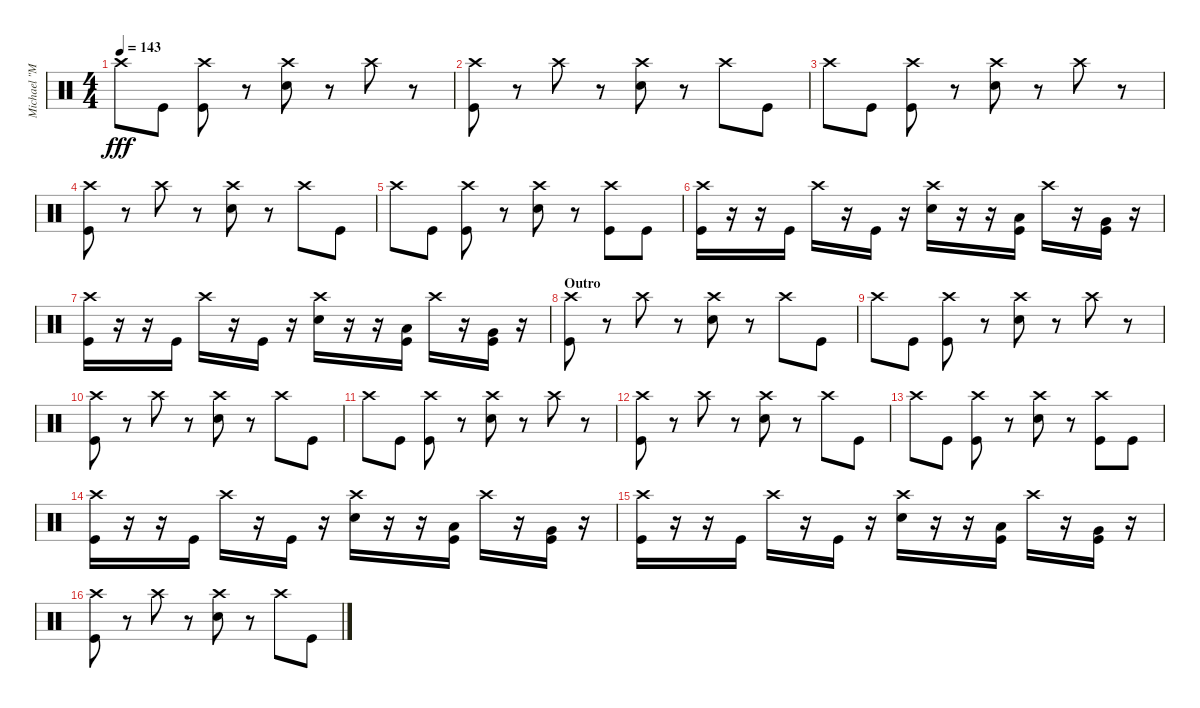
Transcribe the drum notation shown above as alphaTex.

\track ("Michael \"Moose\" Thomas" "Michael \"M") {instrument percussion}
\staff {score}
\articulation defaults
\ts (4 4)
\tempo 143
\clef neutral
\ks c "Crash high (hit)".8{dy fff} "Kick (hit)".8
("Kick (hit)" "Crash high (hit)").8 r.8 ("Snare (hit) 2" "Crash high (hit)").8 r.8 "Crash high (hit)".8 r.8 |
("Kick (hit)" "Crash high (hit)").8 r.8 "Crash high (hit)".8 r.8 ("Snare (hit) 2" "Crash high (hit)").8 r.8 "Crash high (hit)".8 "Kick (hit)".8 |
"Crash high (hit)".8 "Kick (hit)".8 ("Kick (hit)" "Crash high (hit)").8 r.8 ("Snare (hit) 2" "Crash high (hit)").8 r.8 "Crash high (hit)".8 r.8 |
("Kick (hit)" "Crash high (hit)").8 r.8 "Crash high (hit)".8 r.8 ("Snare (hit) 2" "Crash high (hit)").8 r.8 "Crash high (hit)".8 "Kick (hit)".8 |
"Crash high (hit)".8 "Kick (hit)".8 ("Kick (hit)" "Crash high (hit)").8 r.8 ("Snare (hit) 2" "Crash high (hit)").8 r.8 ("Crash high (hit)" "Kick (hit)").8 "Kick (hit)".8 |
("Kick (hit)" "Crash high (hit)").16 r.16 r.16 "Kick (hit)".16 "Crash high (hit)".16 r.16 "Kick (hit)".16 r.16 ("Snare (hit) 2" "Crash high (hit)").16 r.16 r.16 ("Kick (hit)" "Low Tom (hit)").16 "Crash high (hit)".16 r.16 ("Kick (hit)" "Very Low Tom (hit)").16 r.16 |
("Kick (hit)" "Crash high (hit)").16 r.16 r.16 "Kick (hit)".16 "Crash high (hit)".16 r.16 "Kick (hit)".16 r.16 ("Snare (hit) 2" "Crash high (hit)").16 r.16 r.16 ("Kick (hit)" "Low Tom (hit)").16 "Crash high (hit)".16 r.16 ("Kick (hit)" "Very Low Tom (hit)").16 r.16 |
\section ("" "Outro")
("Kick (hit)" "Crash high (hit)").8 r.8 "Crash high (hit)".8 r.8 ("Snare (hit) 2" "Crash high (hit)").8 r.8 "Crash high (hit)".8 "Kick (hit)".8 |
"Crash high (hit)".8 "Kick (hit)".8 ("Kick (hit)" "Crash high (hit)").8 r.8 ("Snare (hit) 2" "Crash high (hit)").8 r.8 "Crash high (hit)".8 r.8 |
("Kick (hit)" "Crash high (hit)").8 r.8 "Crash high (hit)".8 r.8 ("Snare (hit) 2" "Crash high (hit)").8 r.8 "Crash high (hit)".8 "Kick (hit)".8 |
"Crash high (hit)".8 "Kick (hit)".8 ("Kick (hit)" "Crash high (hit)").8 r.8 ("Snare (hit) 2" "Crash high (hit)").8 r.8 "Crash high (hit)".8 r.8 |
("Kick (hit)" "Crash high (hit)").8 r.8 "Crash high (hit)".8 r.8 ("Snare (hit) 2" "Crash high (hit)").8 r.8 "Crash high (hit)".8 "Kick (hit)".8 |
"Crash high (hit)".8 "Kick (hit)".8 ("Kick (hit)" "Crash high (hit)").8 r.8 ("Snare (hit) 2" "Crash high (hit)").8 r.8 ("Crash high (hit)" "Kick (hit)").8 "Kick (hit)".8 |
("Kick (hit)" "Crash high (hit)").16 r.16 r.16 "Kick (hit)".16 "Crash high (hit)".16 r.16 "Kick (hit)".16 r.16 ("Snare (hit) 2" "Crash high (hit)").16 r.16 r.16 ("Kick (hit)" "Low Tom (hit)").16 "Crash high (hit)".16 r.16 ("Kick (hit)" "Very Low Tom (hit)").16 r.16 |
("Kick (hit)" "Crash high (hit)").16 r.16 r.16 "Kick (hit)".16 "Crash high (hit)".16 r.16 "Kick (hit)".16 r.16 ("Snare (hit) 2" "Crash high (hit)").16 r.16 r.16 ("Kick (hit)" "Low Tom (hit)").16 "Crash high (hit)".16 r.16 ("Kick (hit)" "Very Low Tom (hit)").16 r.16 |
("Kick (hit)" "Crash high (hit)").8 r.8 "Crash high (hit)".8 r.8 ("Snare (hit) 2" "Crash high (hit)").8 r.8 "Crash high (hit)".8 "Kick (hit)".8
